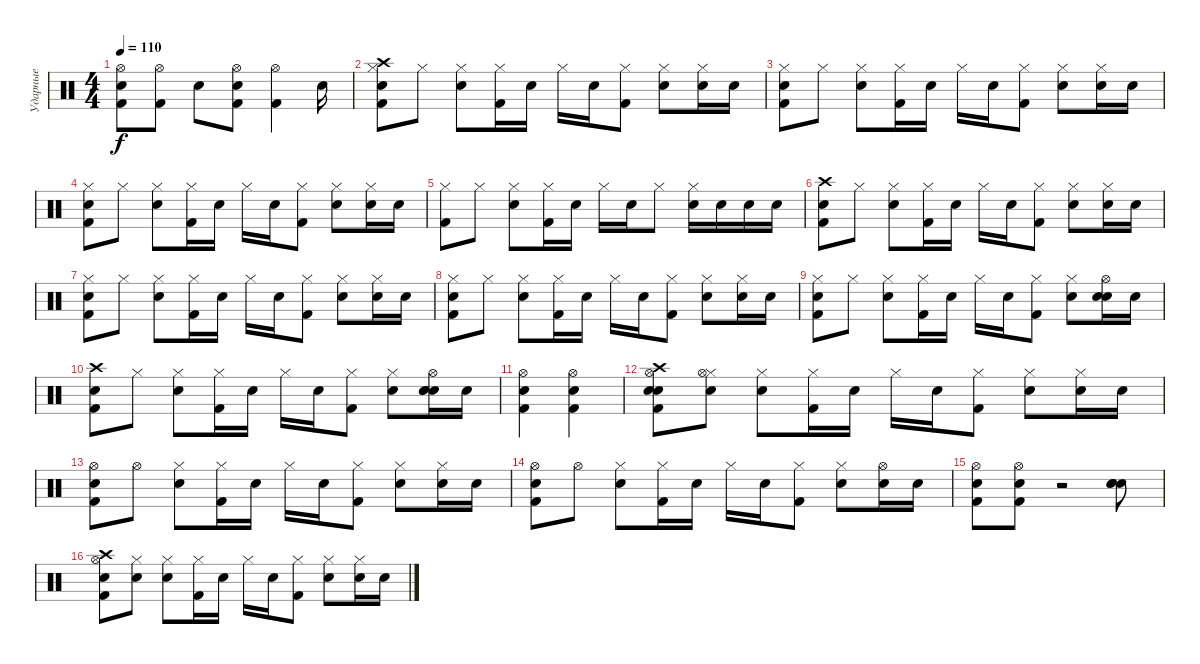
\track ("Ударные" "Ударные") {instrument percussion}
\staff {score}
\articulation defaults
\ts (4 4)
\tempo 110
\clef neutral
\ks c
("Hi-Hat (open)" "Kick (hit) 2" "Snare (hit)").8{dy f} ("Hi-Hat (open)" "Kick (hit) 2").8 "Electric Snare (hit)".8 ("Hi-Hat (open)" "Kick (hit) 2" "Snare (hit)").8 ("Hi-Hat (open)" "Kick (hit) 2").4 "Electric Snare (hit)".16 |
("Hi-Hat (closed)" "Snare (hit)" "Crash high (hit)" "Kick (hit) 2").8 "Hi-Hat (closed)".8 ("Hi-Hat (closed)" "Electric Snare (hit)").8 ("Hi-Hat (closed)" "Kick (hit) 2").16 "Electric Snare (hit)".16 "Hi-Hat (closed)".16 "Electric Snare (hit)".16 ("Hi-Hat (closed)" "Kick (hit) 2").8 ("Hi-Hat (closed)" "Electric Snare (hit)").8 ("Hi-Hat (closed)" "Snare (hit)").16 "Snare (hit)".16 |
("Hi-Hat (closed)" "Snare (hit)" "Kick (hit) 2").8 "Hi-Hat (closed)".8 ("Hi-Hat (closed)" "Electric Snare (hit)").8 ("Hi-Hat (closed)" "Kick (hit) 2").16 "Electric Snare (hit)".16 "Hi-Hat (closed)".16 "Electric Snare (hit)".16 ("Hi-Hat (closed)" "Kick (hit) 2").8 ("Hi-Hat (closed)" "Electric Snare (hit)").8 ("Hi-Hat (closed)" "Snare (hit)").16 "Snare (hit)".16 |
("Hi-Hat (closed)" "Snare (hit)" "Kick (hit) 2").8 "Hi-Hat (closed)".8 ("Hi-Hat (closed)" "Electric Snare (hit)").8 ("Hi-Hat (closed)" "Kick (hit) 2").16 "Electric Snare (hit)".16 "Hi-Hat (closed)".16 "Electric Snare (hit)".16 ("Hi-Hat (closed)" "Kick (hit) 2").8 ("Hi-Hat (closed)" "Electric Snare (hit)").8 ("Hi-Hat (closed)" "Snare (hit)").16 "Snare (hit)".16 |
("Hi-Hat (closed)" "Kick (hit) 2").8 "Hi-Hat (closed)".8 ("Hi-Hat (closed)" "Electric Snare (hit)").8 ("Hi-Hat (closed)" "Kick (hit) 2").16 "Electric Snare (hit)".16 "Hi-Hat (closed)".16 "Electric Snare (hit)".16 "Hi-Hat (closed)".8 ("Hi-Hat (closed)" "Electric Snare (hit)").16 "Electric Snare (hit)".16 "Electric Snare (hit)".16 "Electric Snare (hit)".16 |
("Crash high (hit)" "Snare (hit)" "Kick (hit) 2").8 "Hi-Hat (closed)".8 ("Hi-Hat (closed)" "Electric Snare (hit)").8 ("Hi-Hat (closed)" "Kick (hit) 2").16 "Electric Snare (hit)".16 "Hi-Hat (closed)".16 "Electric Snare (hit)".16 ("Hi-Hat (closed)" "Kick (hit) 2").8 ("Hi-Hat (closed)" "Electric Snare (hit)").8 ("Hi-Hat (closed)" "Snare (hit)").16 "Snare (hit)".16 |
("Hi-Hat (closed)" "Snare (hit)" "Kick (hit) 2").8 "Hi-Hat (closed)".8 ("Hi-Hat (closed)" "Electric Snare (hit)").8 ("Hi-Hat (closed)" "Kick (hit) 2").16 "Electric Snare (hit)".16 "Hi-Hat (closed)".16 "Electric Snare (hit)".16 ("Hi-Hat (closed)" "Kick (hit) 2").8 ("Hi-Hat (closed)" "Electric Snare (hit)").8 ("Hi-Hat (closed)" "Snare (hit)").16 "Snare (hit)".16 |
("Hi-Hat (closed)" "Snare (hit)" "Kick (hit) 2").8 "Hi-Hat (closed)".8 ("Hi-Hat (closed)" "Electric Snare (hit)").8 ("Hi-Hat (closed)" "Kick (hit) 2").16 "Electric Snare (hit)".16 "Hi-Hat (closed)".16 "Electric Snare (hit)".16 ("Hi-Hat (closed)" "Kick (hit) 2").8 ("Hi-Hat (closed)" "Electric Snare (hit)").8 ("Hi-Hat (closed)" "Snare (hit)").16 "Snare (hit)".16 |
("Hi-Hat (closed)" "Snare (hit)" "Kick (hit) 2").8 "Hi-Hat (closed)".8 ("Hi-Hat (closed)" "Electric Snare (hit)").8 ("Hi-Hat (closed)" "Kick (hit) 2").16 "Electric Snare (hit)".16 "Hi-Hat (closed)".16 "Electric Snare (hit)".16 ("Hi-Hat (closed)" "Kick (hit) 2").8 ("Hi-Hat (closed)" "Electric Snare (hit)").8 ("Snare (hit)" "Hi-Hat (open)" "Snare (hit)").16 "Snare (hit)".16 |
("Crash high (hit)" "Snare (hit)" "Kick (hit) 2").8 "Hi-Hat (closed)".8 ("Hi-Hat (closed)" "Electric Snare (hit)").8 ("Hi-Hat (closed)" "Kick (hit) 2").16 "Electric Snare (hit)".16 "Hi-Hat (closed)".16 "Electric Snare (hit)".16 ("Hi-Hat (closed)" "Kick (hit) 2").8 ("Hi-Hat (closed)" "Electric Snare (hit)").8 ("Snare (hit)" "Snare (hit)" "Hi-Hat (open)" "Snare (hit)").16 "Snare (hit)".16 |
("Kick (hit) 2" "Electric Snare (hit)" "Hi-Hat (open)").4 ("Kick (hit) 2" "Electric Snare (hit)" "Hi-Hat (open)").4 |
("Snare (hit)" "Snare (hit)" "Crash high (hit)" "Hi-Hat (open)" "Kick (hit) 2").8 ("Hi-Hat (closed)" "Snare (hit)" "Hi-Hat (open)").8 ("Hi-Hat (closed)" "Electric Snare (hit)").8 ("Hi-Hat (closed)" "Kick (hit) 2").16 "Electric Snare (hit)".16 "Hi-Hat (closed)".16 "Electric Snare (hit)".16 ("Hi-Hat (closed)" "Kick (hit) 2").8 ("Hi-Hat (closed)" "Electric Snare (hit)").8 ("Hi-Hat (closed)" "Snare (hit)").16 "Snare (hit)".16 |
("Hi-Hat (open)" "Snare (hit)" "Kick (hit) 2").8 "Hi-Hat (open)".8 ("Hi-Hat (closed)" "Electric Snare (hit)").8 ("Hi-Hat (closed)" "Kick (hit) 2").16 "Electric Snare (hit)".16 "Hi-Hat (closed)".16 "Electric Snare (hit)".16 ("Hi-Hat (closed)" "Kick (hit) 2").8 ("Hi-Hat (closed)" "Electric Snare (hit)").8 ("Hi-Hat (closed)" "Snare (hit)").16 "Snare (hit)".16 |
("Hi-Hat (open)" "Snare (hit)" "Kick (hit) 2").8 "Hi-Hat (open)".8 ("Hi-Hat (closed)" "Electric Snare (hit)").8 ("Hi-Hat (closed)" "Kick (hit) 2").16 "Electric Snare (hit)".16 "Hi-Hat (closed)".16 "Electric Snare (hit)".16 ("Hi-Hat (closed)" "Kick (hit) 2").8 ("Hi-Hat (closed)" "Electric Snare (hit)").8 ("Hi-Hat (open)" "Snare (hit)").16 "Snare (hit)".16 |
("Kick (hit) 2" "Electric Snare (hit)" "Hi-Hat (open)").8 ("Kick (hit) 2" "Electric Snare (hit)" "Hi-Hat (open)").8 r.2 ("Snare (hit)" "Electric Snare (hit)" "Snare (hit)").8 |
("Hi-Hat (open)" "Snare (hit)" "Crash high (hit)" "Kick (hit) 2").8 ("Hi-Hat (closed)" "Snare (hit)").8 ("Hi-Hat (closed)" "Electric Snare (hit)").8 ("Hi-Hat (closed)" "Kick (hit) 2").16 "Electric Snare (hit)".16 "Hi-Hat (closed)".16 "Electric Snare (hit)".16 ("Hi-Hat (closed)" "Kick (hit) 2").8 ("Hi-Hat (closed)" "Electric Snare (hit)").8 ("Hi-Hat (closed)" "Snare (hit)").16 "Snare (hit)".16
